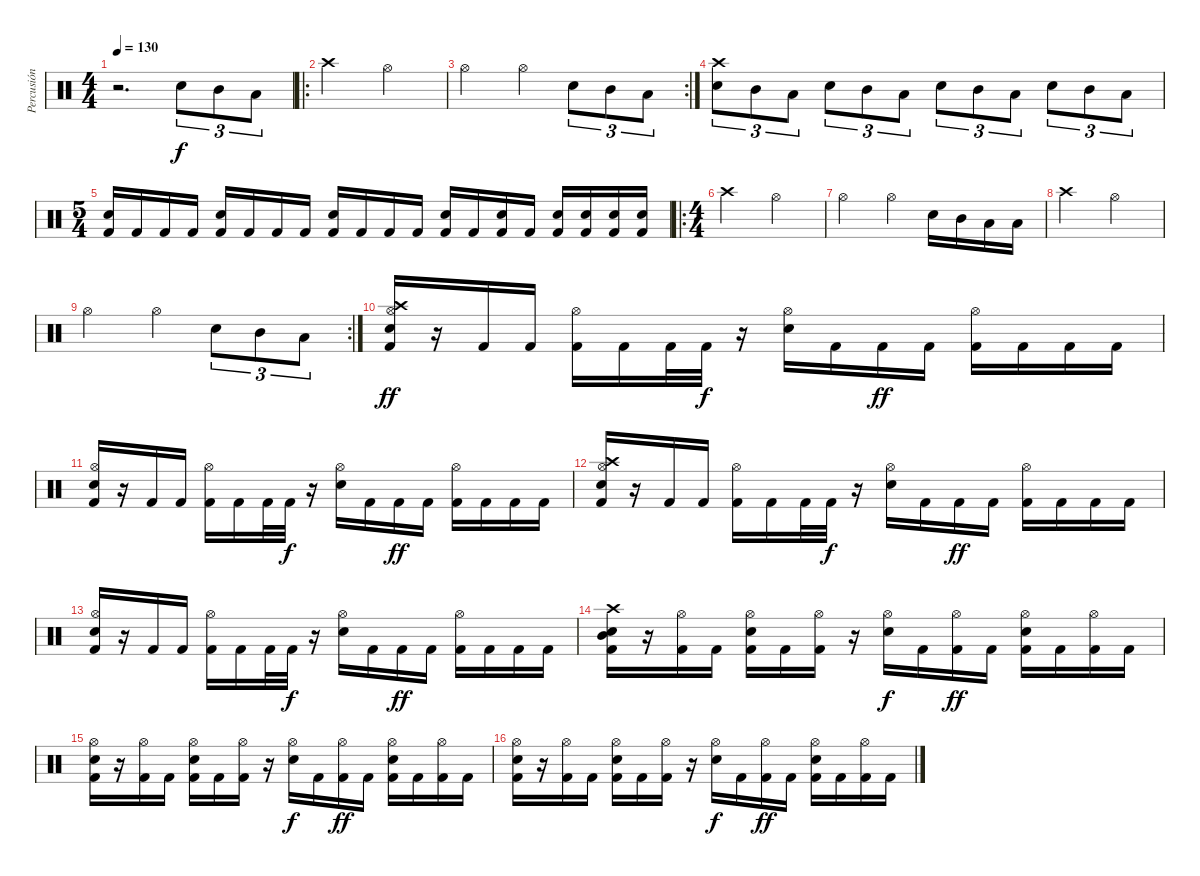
\track ("Percusión" "Percusión") {instrument percussion}
\staff {score}
\articulation defaults
\ts (4 4)
\tempo 130
\clef neutral
\ks c
r.2{d dy f} "Electric Snare (hit)".8{tu (3 2)} "Mid Tom (hit)".8{tu (3 2)} "Low Tom (hit)".8{tu (3 2)} |
\ro "Crash high (hit)".2 "Hi-Hat (open)".2
|
\rc 2 "Hi-Hat (open)".2 "Hi-Hat (open)".4 "Electric Snare (hit)".8{tu (3 2)} "Mid Tom (hit)".8{tu (3 2)} "Low Tom (hit)".8{tu (3 2)}
|
("Crash high (hit)" "Electric Snare (hit)").8{tu (3 2)} "Mid Tom (hit)".8{tu (3 2)} "Low Tom (hit)".8{tu (3 2)} "Electric Snare (hit)".8{tu (3 2)} "Mid Tom (hit)".8{tu (3 2)} "Low Tom (hit)".8{tu (3 2)} "Electric Snare (hit)".8{tu (3 2)} "Mid Tom (hit)".8{tu (3 2)} "Low Tom (hit)".8{tu (3 2)} "Electric Snare (hit)".8{tu (3 2)} "Mid Tom (hit)".8{tu (3 2)} "Low Tom (hit)".8{tu (3 2)} |
\ts (5 4)
("Electric Snare (hit)" "Kick (hit) 2").16 "Kick (hit) 2".16 "Kick (hit) 2".16 "Kick (hit) 2".16 ("Electric Snare (hit)" "Kick (hit) 2").16 "Kick (hit) 2".16 "Kick (hit) 2".16 "Kick (hit) 2".16 ("Electric Snare (hit)" "Kick (hit) 2").16 "Kick (hit) 2".16 "Kick (hit) 2".16 "Kick (hit) 2".16 ("Electric Snare (hit)" "Kick (hit) 2").16 "Kick (hit) 2".16 ("Electric Snare (hit)" "Kick (hit) 2").16 "Kick (hit) 2".16 ("Electric Snare (hit)" "Kick (hit) 2").16 ("Electric Snare (hit)" "Kick (hit) 2").16 ("Electric Snare (hit)" "Kick (hit) 2").16 ("Electric Snare (hit)" "Kick (hit) 2").16 |
\ro
\ts (4 4)
"Crash high (hit)".2 "Hi-Hat (open)".2 |
"Hi-Hat (open)".2 "Hi-Hat (open)".4 "Electric Snare (hit)".16 "Mid Tom (hit)".16 "Low Tom (hit)".16 "Low Tom (hit)".16 |
"Crash high (hit)".2 "Hi-Hat (open)".2 |
\rc 2 "Hi-Hat (open)".2 "Hi-Hat (open)".4 "Electric Snare (hit)".8{tu (3 2)} "Mid Tom (hit)".8{tu (3 2)} "Low Tom (hit)".8{tu (3 2)}
|
("Crash high (hit)" "Hi-Hat (open)" "Electric Snare (hit)" "Kick (hit) 2").16{dy ff} r.16 "Kick (hit) 2".16 "Kick (hit) 2".16 ("Hi-Hat (open)" "Kick (hit) 2").16 "Kick (hit) 2".16 "Kick (hit) 2".32 "Kick (hit) 2".32{dy f} r.16 ("Hi-Hat (open)" "Electric Snare (hit)").16 "Kick (hit) 2".16 "Kick (hit) 2".16{dy ff} "Kick (hit) 2".16 ("Hi-Hat (open)" "Kick (hit) 2").16 "Kick (hit) 2".16 "Kick (hit) 2".16 "Kick (hit) 2".16 |
("Hi-Hat (open)" "Electric Snare (hit)" "Kick (hit) 2").16 r.16 "Kick (hit) 2".16 "Kick (hit) 2".16 ("Hi-Hat (open)" "Kick (hit) 2").16 "Kick (hit) 2".16 "Kick (hit) 2".32 "Kick (hit) 2".32{dy f} r.16 ("Hi-Hat (open)" "Electric Snare (hit)").16 "Kick (hit) 2".16 "Kick (hit) 2".16{dy ff} "Kick (hit) 2".16 ("Hi-Hat (open)" "Kick (hit) 2").16 "Kick (hit) 2".16 "Kick (hit) 2".16 "Kick (hit) 2".16 |
("Crash high (hit)" "Hi-Hat (open)" "Electric Snare (hit)" "Kick (hit) 2").16 r.16 "Kick (hit) 2".16 "Kick (hit) 2".16 ("Hi-Hat (open)" "Kick (hit) 2").16 "Kick (hit) 2".16 "Kick (hit) 2".32 "Kick (hit) 2".32{dy f} r.16 ("Hi-Hat (open)" "Electric Snare (hit)").16 "Kick (hit) 2".16 "Kick (hit) 2".16{dy ff} "Kick (hit) 2".16 ("Hi-Hat (open)" "Kick (hit) 2").16 "Kick (hit) 2".16 "Kick (hit) 2".16 "Kick (hit) 2".16 |
("Hi-Hat (open)" "Electric Snare (hit)" "Kick (hit) 2").16 r.16 "Kick (hit) 2".16 "Kick (hit) 2".16 ("Hi-Hat (open)" "Kick (hit) 2").16 "Kick (hit) 2".16 "Kick (hit) 2".32 "Kick (hit) 2".32{dy f} r.16 ("Hi-Hat (open)" "Electric Snare (hit)").16 "Kick (hit) 2".16 "Kick (hit) 2".16{dy ff} "Kick (hit) 2".16 ("Hi-Hat (open)" "Kick (hit) 2").16 "Kick (hit) 2".16 "Kick (hit) 2".16 "Kick (hit) 2".16 |
("Crash high (hit)" "Mid Tom (hit)" "Electric Snare (hit)" "Kick (hit) 2").16 r.16 ("Hi-Hat (open)" "Kick (hit) 2").16 "Kick (hit) 2".16 ("Hi-Hat (open)" "Electric Snare (hit)" "Kick (hit) 2").16 "Kick (hit) 2".16 ("Hi-Hat (open)" "Kick (hit) 2").16 r.16 ("Hi-Hat (open)" "Electric Snare (hit)").16{dy f} "Kick (hit) 2".16 ("Hi-Hat (open)" "Kick (hit) 2").16{dy ff} "Kick (hit) 2".16 ("Hi-Hat (open)" "Electric Snare (hit)" "Kick (hit) 2").16 "Kick (hit) 2".16 ("Hi-Hat (open)" "Kick (hit) 2").16 "Kick (hit) 2".16 |
("Hi-Hat (open)" "Electric Snare (hit)" "Kick (hit) 2").16 r.16 ("Hi-Hat (open)" "Kick (hit) 2").16 "Kick (hit) 2".16 ("Hi-Hat (open)" "Electric Snare (hit)" "Kick (hit) 2").16 "Kick (hit) 2".16 ("Hi-Hat (open)" "Kick (hit) 2").16 r.16 ("Hi-Hat (open)" "Electric Snare (hit)").16{dy f} "Kick (hit) 2".16 ("Hi-Hat (open)" "Kick (hit) 2").16{dy ff} "Kick (hit) 2".16 ("Hi-Hat (open)" "Electric Snare (hit)" "Kick (hit) 2").16 "Kick (hit) 2".16 ("Hi-Hat (open)" "Kick (hit) 2").16 "Kick (hit) 2".16 |
("Hi-Hat (open)" "Electric Snare (hit)" "Kick (hit) 2").16 r.16 ("Hi-Hat (open)" "Kick (hit) 2").16 "Kick (hit) 2".16 ("Hi-Hat (open)" "Electric Snare (hit)" "Kick (hit) 2").16 "Kick (hit) 2".16 ("Hi-Hat (open)" "Kick (hit) 2").16 r.16 ("Hi-Hat (open)" "Electric Snare (hit)").16{dy f} "Kick (hit) 2".16 ("Hi-Hat (open)" "Kick (hit) 2").16{dy ff} "Kick (hit) 2".16 ("Hi-Hat (open)" "Electric Snare (hit)" "Kick (hit) 2").16 "Kick (hit) 2".16 ("Hi-Hat (open)" "Kick (hit) 2").16 "Kick (hit) 2".16
